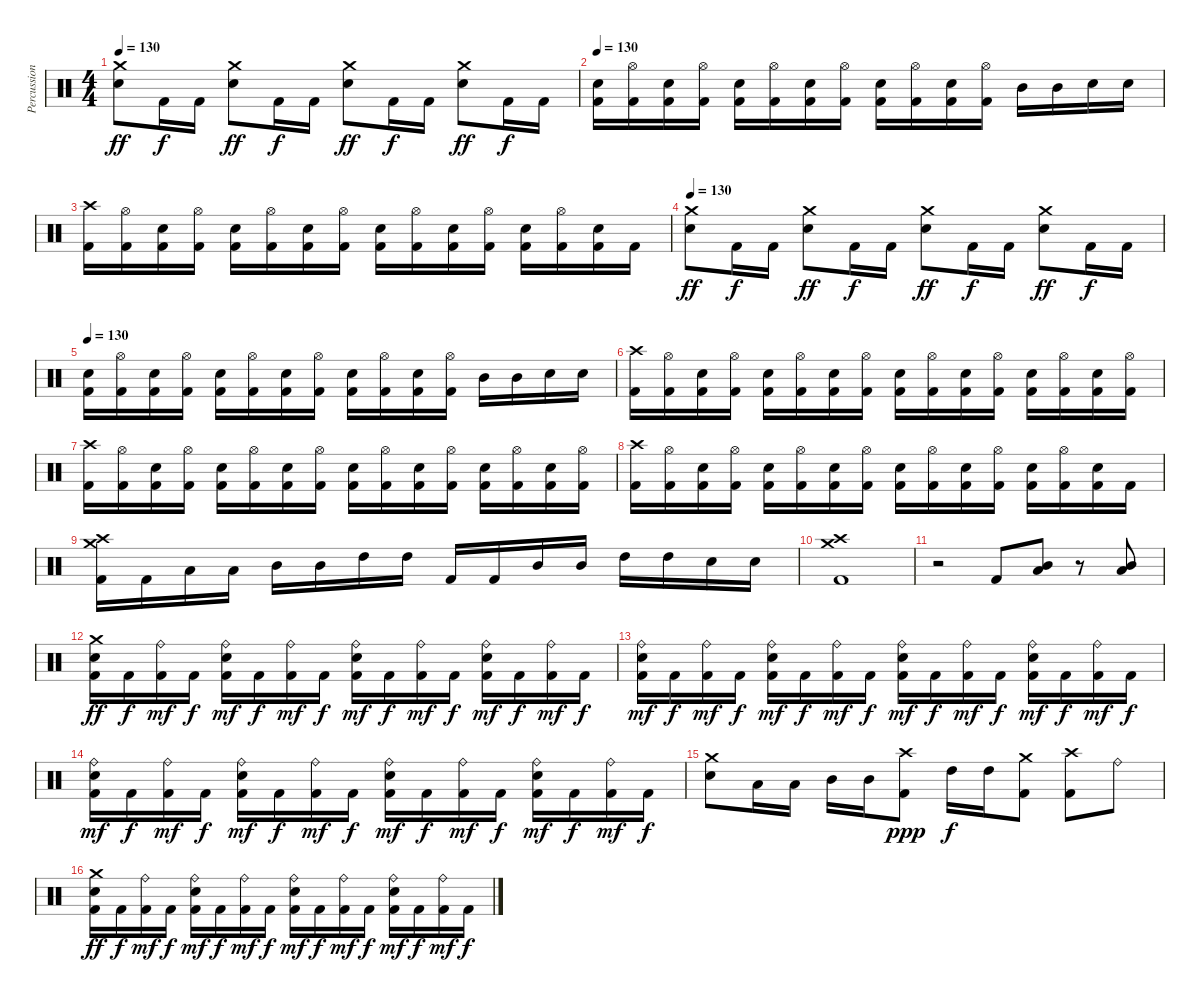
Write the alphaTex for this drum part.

\track ("Percussion" "Percussion") {instrument percussion}
\staff {score}
\articulation defaults
\ts (4 4)
\tempo 130
\clef neutral
\ks c
("Crash medium (hit)" "Electric Snare (hit)").8{dy ff} "Kick (hit) 2".16{dy f} "Kick (hit) 2".16 ("Crash medium (hit)" "Electric Snare (hit)").8{dy ff} "Kick (hit) 2".16{dy f} "Kick (hit) 2".16 ("Crash medium (hit)" "Electric Snare (hit)").8{dy ff} "Kick (hit) 2".16{dy f} "Kick (hit) 2".16 ("Crash medium (hit)" "Electric Snare (hit)").8{dy ff} "Kick (hit) 2".16{dy f} "Kick (hit) 2".16 |
\tempo 130
("Electric Snare (hit)" "Kick (hit) 2").16 ("Hi-Hat (open)" "Kick (hit) 2").16 ("Electric Snare (hit)" "Kick (hit) 2").16 ("Hi-Hat (open)" "Kick (hit) 2").16 ("Electric Snare (hit)" "Kick (hit) 2").16 ("Hi-Hat (open)" "Kick (hit) 2").16 ("Electric Snare (hit)" "Kick (hit) 2").16 ("Hi-Hat (open)" "Kick (hit) 2").16 ("Electric Snare (hit)" "Kick (hit) 2").16 ("Hi-Hat (open)" "Kick (hit) 2").16 ("Electric Snare (hit)" "Kick (hit) 2").16 ("Hi-Hat (open)" "Kick (hit) 2").16 "Mid Tom (hit)".16 "Mid Tom (hit)".16 "Electric Snare (hit)".16 "Electric Snare (hit)".16 |
("Crash high (hit)" "Kick (hit) 2").16 ("Hi-Hat (open)" "Kick (hit) 2").16 ("Electric Snare (hit)" "Kick (hit) 2").16 ("Hi-Hat (open)" "Kick (hit) 2").16 ("Electric Snare (hit)" "Kick (hit) 2").16 ("Hi-Hat (open)" "Kick (hit) 2").16 ("Electric Snare (hit)" "Kick (hit) 2").16 ("Hi-Hat (open)" "Kick (hit) 2").16 ("Electric Snare (hit)" "Kick (hit) 2").16 ("Hi-Hat (open)" "Kick (hit) 2").16 ("Electric Snare (hit)" "Kick (hit) 2").16 ("Hi-Hat (open)" "Kick (hit) 2").16 ("Electric Snare (hit)" "Kick (hit) 2").16 ("Hi-Hat (open)" "Kick (hit) 2").16 ("Electric Snare (hit)" "Kick (hit) 2").16 "Kick (hit) 2".16 |
\tempo 130
("Crash medium (hit)" "Electric Snare (hit)").8{dy ff} "Kick (hit) 2".16{dy f} "Kick (hit) 2".16 ("Crash medium (hit)" "Electric Snare (hit)").8{dy ff} "Kick (hit) 2".16{dy f} "Kick (hit) 2".16 ("Crash medium (hit)" "Electric Snare (hit)").8{dy ff} "Kick (hit) 2".16{dy f} "Kick (hit) 2".16 ("Crash medium (hit)" "Electric Snare (hit)").8{dy ff} "Kick (hit) 2".16{dy f} "Kick (hit) 2".16 |
\tempo 130
("Electric Snare (hit)" "Kick (hit) 2").16 ("Hi-Hat (open)" "Kick (hit) 2").16 ("Electric Snare (hit)" "Kick (hit) 2").16 ("Hi-Hat (open)" "Kick (hit) 2").16 ("Electric Snare (hit)" "Kick (hit) 2").16 ("Hi-Hat (open)" "Kick (hit) 2").16 ("Electric Snare (hit)" "Kick (hit) 2").16 ("Hi-Hat (open)" "Kick (hit) 2").16 ("Electric Snare (hit)" "Kick (hit) 2").16 ("Hi-Hat (open)" "Kick (hit) 2").16 ("Electric Snare (hit)" "Kick (hit) 2").16 ("Hi-Hat (open)" "Kick (hit) 2").16 "Mid Tom (hit)".16 "Mid Tom (hit)".16 "Electric Snare (hit)".16 "Electric Snare (hit)".16 |
("Crash high (hit)" "Kick (hit) 2").16 ("Hi-Hat (open)" "Kick (hit) 2").16 ("Electric Snare (hit)" "Kick (hit) 2").16 ("Hi-Hat (open)" "Kick (hit) 2").16 ("Electric Snare (hit)" "Kick (hit) 2").16 ("Hi-Hat (open)" "Kick (hit) 2").16 ("Electric Snare (hit)" "Kick (hit) 2").16 ("Hi-Hat (open)" "Kick (hit) 2").16 ("Electric Snare (hit)" "Kick (hit) 2").16 ("Hi-Hat (open)" "Kick (hit) 2").16 ("Electric Snare (hit)" "Kick (hit) 2").16 ("Hi-Hat (open)" "Kick (hit) 2").16 ("Electric Snare (hit)" "Kick (hit) 2").16 ("Hi-Hat (open)" "Kick (hit) 2").16 ("Electric Snare (hit)" "Kick (hit) 2").16 ("Hi-Hat (open)" "Kick (hit) 2").16 |
("Crash high (hit)" "Kick (hit) 2").16 ("Hi-Hat (open)" "Kick (hit) 2").16 ("Electric Snare (hit)" "Kick (hit) 2").16 ("Hi-Hat (open)" "Kick (hit) 2").16 ("Electric Snare (hit)" "Kick (hit) 2").16 ("Hi-Hat (open)" "Kick (hit) 2").16 ("Electric Snare (hit)" "Kick (hit) 2").16 ("Hi-Hat (open)" "Kick (hit) 2").16 ("Electric Snare (hit)" "Kick (hit) 2").16 ("Hi-Hat (open)" "Kick (hit) 2").16 ("Electric Snare (hit)" "Kick (hit) 2").16 ("Hi-Hat (open)" "Kick (hit) 2").16 ("Electric Snare (hit)" "Kick (hit) 2").16 ("Hi-Hat (open)" "Kick (hit) 2").16 ("Electric Snare (hit)" "Kick (hit) 2").16 ("Hi-Hat (open)" "Kick (hit) 2").16 |
("Crash high (hit)" "Kick (hit) 2").16 ("Hi-Hat (open)" "Kick (hit) 2").16 ("Electric Snare (hit)" "Kick (hit) 2").16 ("Hi-Hat (open)" "Kick (hit) 2").16 ("Electric Snare (hit)" "Kick (hit) 2").16 ("Hi-Hat (open)" "Kick (hit) 2").16 ("Electric Snare (hit)" "Kick (hit) 2").16 ("Hi-Hat (open)" "Kick (hit) 2").16 ("Electric Snare (hit)" "Kick (hit) 2").16 ("Hi-Hat (open)" "Kick (hit) 2").16 ("Electric Snare (hit)" "Kick (hit) 2").16 ("Hi-Hat (open)" "Kick (hit) 2").16 ("Electric Snare (hit)" "Kick (hit) 2").16 ("Hi-Hat (open)" "Kick (hit) 2").16 ("Electric Snare (hit)" "Kick (hit) 2").16 "Kick (hit) 2".16 |
("Crash medium (hit)" "Crash high (hit)" "Kick (hit) 2").16 "Kick (hit) 2".16 "Low Tom (hit)".16 "Low Tom (hit)".16 "Mid Tom (hit)".16 "Mid Tom (hit)".16 "High Tom (hit)".16 "High Tom (hit)".16 "Kick (hit) 2".16 "Kick (hit) 2".16 "Mid Tom (hit)".16 "Mid Tom (hit)".16 "High Tom (hit)".16 "High Tom (hit)".16 "Electric Snare (hit)".16 "Electric Snare (hit)".16 |
("Crash high (hit)" "Crash medium (hit)" "Kick (hit) 2").1 |
r.2 "Kick (hit) 2".8 ("Mid Tom (hit)" "Low Tom (hit)").8 r.8 ("Mid Tom (hit)" "Low Tom (hit)").8 |
("Crash medium (hit)" "Electric Snare (hit)" "Kick (hit) 2").16{dy ff} "Kick (hit) 2".16{dy f} ("Ride (bell)" "Kick (hit) 2").16{dy mf} "Kick (hit) 2".16{dy f} ("Ride (bell)" "Electric Snare (hit)" "Kick (hit) 2").16{dy mf} "Kick (hit) 2".16{dy f} ("Ride (bell)" "Kick (hit) 2").16{dy mf} "Kick (hit) 2".16{dy f} ("Ride (bell)" "Electric Snare (hit)" "Kick (hit) 2").16{dy mf} "Kick (hit) 2".16{dy f} ("Ride (bell)" "Kick (hit) 2").16{dy mf} "Kick (hit) 2".16{dy f} ("Ride (bell)" "Electric Snare (hit)" "Kick (hit) 2").16{dy mf} "Kick (hit) 2".16{dy f} ("Ride (bell)" "Kick (hit) 2").16{dy mf} "Kick (hit) 2".16{dy f} |
("Ride (bell)" "Electric Snare (hit)" "Kick (hit) 2").16{dy mf} "Kick (hit) 2".16{dy f} ("Ride (bell)" "Kick (hit) 2").16{dy mf} "Kick (hit) 2".16{dy f} ("Ride (bell)" "Electric Snare (hit)" "Kick (hit) 2").16{dy mf} "Kick (hit) 2".16{dy f} ("Ride (bell)" "Kick (hit) 2").16{dy mf} "Kick (hit) 2".16{dy f} ("Ride (bell)" "Electric Snare (hit)" "Kick (hit) 2").16{dy mf} "Kick (hit) 2".16{dy f} ("Ride (bell)" "Kick (hit) 2").16{dy mf} "Kick (hit) 2".16{dy f} ("Ride (bell)" "Electric Snare (hit)" "Kick (hit) 2").16{dy mf} "Kick (hit) 2".16{dy f} ("Ride (bell)" "Kick (hit) 2").16{dy mf} "Kick (hit) 2".16{dy f} |
("Ride (bell)" "Electric Snare (hit)" "Kick (hit) 2").16{dy mf} "Kick (hit) 2".16{dy f} ("Ride (bell)" "Kick (hit) 2").16{dy mf} "Kick (hit) 2".16{dy f} ("Ride (bell)" "Electric Snare (hit)" "Kick (hit) 2").16{dy mf} "Kick (hit) 2".16{dy f} ("Ride (bell)" "Kick (hit) 2").16{dy mf} "Kick (hit) 2".16{dy f} ("Ride (bell)" "Electric Snare (hit)" "Kick (hit) 2").16{dy mf} "Kick (hit) 2".16{dy f} ("Ride (bell)" "Kick (hit) 2").16{dy mf} "Kick (hit) 2".16{dy f} ("Ride (bell)" "Electric Snare (hit)" "Kick (hit) 2").16{dy mf} "Kick (hit) 2".16{dy f} ("Ride (bell)" "Kick (hit) 2").16{dy mf} "Kick (hit) 2".16{dy f} |
("Crash medium (hit)" "Electric Snare (hit)").8 "Low Tom (hit)".16 "Low Tom (hit)".16 "Mid Tom (hit)".16 "Mid Tom (hit)".16 ("Crash high (hit)" "Kick (hit) 2").8{dy ppp} "High Tom (hit)".16{dy f} "High Tom (hit)".16 ("Crash medium (hit)" "Kick (hit) 2").8 ("Crash high (hit)" "Kick (hit) 2").8 "Ride (bell)".8 |
("Crash medium (hit)" "Electric Snare (hit)" "Kick (hit) 2").16{dy ff} "Kick (hit) 2".16{dy f} ("Ride (bell)" "Kick (hit) 2").16{dy mf} "Kick (hit) 2".16{dy f} ("Ride (bell)" "Electric Snare (hit)" "Kick (hit) 2").16{dy mf} "Kick (hit) 2".16{dy f} ("Ride (bell)" "Kick (hit) 2").16{dy mf} "Kick (hit) 2".16{dy f} ("Ride (bell)" "Electric Snare (hit)" "Kick (hit) 2").16{dy mf} "Kick (hit) 2".16{dy f} ("Ride (bell)" "Kick (hit) 2").16{dy mf} "Kick (hit) 2".16{dy f} ("Ride (bell)" "Electric Snare (hit)" "Kick (hit) 2").16{dy mf} "Kick (hit) 2".16{dy f} ("Ride (bell)" "Kick (hit) 2").16{dy mf} "Kick (hit) 2".16{dy f}
